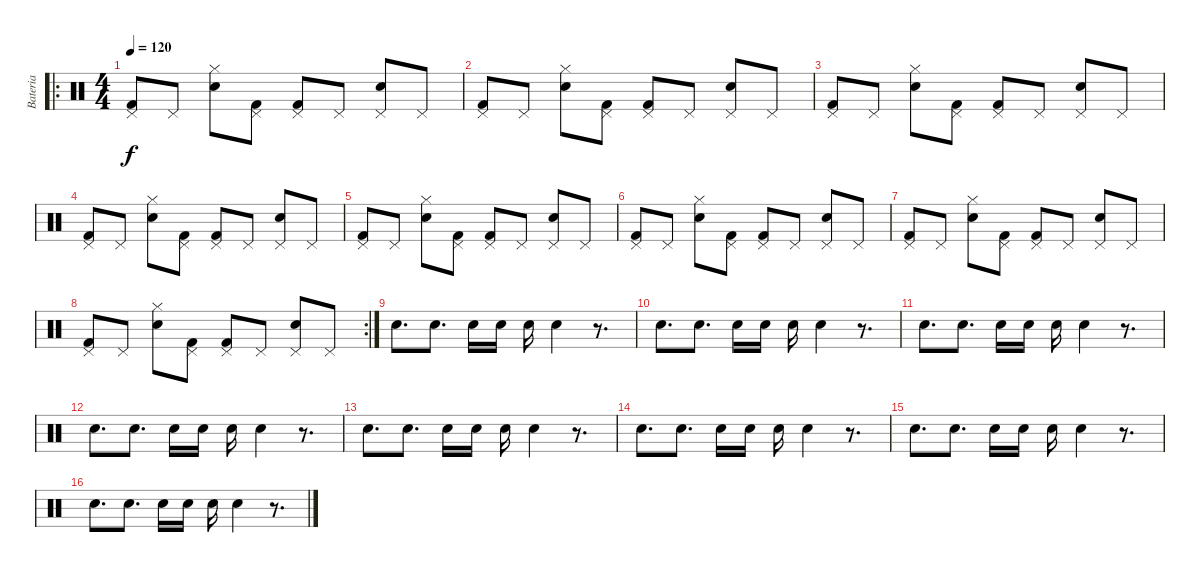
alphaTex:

\track ("Bateria" "Bateria") {instrument percussion}
\staff {score}
\articulation defaults
\ro
\ts (4 4)
\tempo 120
\clef neutral
\ks c
("Pedal Hi-Hat (hit)" "Kick (hit) 2").8{dy f} "Pedal Hi-Hat (hit)".8 ("Hi-Hat (closed)" "Electric Snare (hit)").8 ("Pedal Hi-Hat (hit)" "Kick (hit) 2").8 ("Pedal Hi-Hat (hit)" "Kick (hit) 2").8 "Pedal Hi-Hat (hit)".8 ("Electric Snare (hit)" "Pedal Hi-Hat (hit)").8 "Pedal Hi-Hat (hit)".8 |
("Pedal Hi-Hat (hit)" "Kick (hit) 2").8 "Pedal Hi-Hat (hit)".8 ("Hi-Hat (closed)" "Electric Snare (hit)").8 ("Pedal Hi-Hat (hit)" "Kick (hit) 2").8 ("Pedal Hi-Hat (hit)" "Kick (hit) 2").8 "Pedal Hi-Hat (hit)".8 ("Electric Snare (hit)" "Pedal Hi-Hat (hit)").8 "Pedal Hi-Hat (hit)".8 |
("Pedal Hi-Hat (hit)" "Kick (hit) 2").8 "Pedal Hi-Hat (hit)".8 ("Hi-Hat (closed)" "Electric Snare (hit)").8 ("Pedal Hi-Hat (hit)" "Kick (hit) 2").8 ("Pedal Hi-Hat (hit)" "Kick (hit) 2").8 "Pedal Hi-Hat (hit)".8 ("Electric Snare (hit)" "Pedal Hi-Hat (hit)").8 "Pedal Hi-Hat (hit)".8 |
("Pedal Hi-Hat (hit)" "Kick (hit) 2").8 "Pedal Hi-Hat (hit)".8 ("Hi-Hat (closed)" "Electric Snare (hit)").8 ("Pedal Hi-Hat (hit)" "Kick (hit) 2").8 ("Pedal Hi-Hat (hit)" "Kick (hit) 2").8 "Pedal Hi-Hat (hit)".8 ("Electric Snare (hit)" "Pedal Hi-Hat (hit)").8 "Pedal Hi-Hat (hit)".8 |
("Pedal Hi-Hat (hit)" "Kick (hit) 2").8 "Pedal Hi-Hat (hit)".8 ("Hi-Hat (closed)" "Electric Snare (hit)").8 ("Pedal Hi-Hat (hit)" "Kick (hit) 2").8 ("Pedal Hi-Hat (hit)" "Kick (hit) 2").8 "Pedal Hi-Hat (hit)".8 ("Electric Snare (hit)" "Pedal Hi-Hat (hit)").8 "Pedal Hi-Hat (hit)".8 |
("Pedal Hi-Hat (hit)" "Kick (hit) 2").8 "Pedal Hi-Hat (hit)".8 ("Hi-Hat (closed)" "Electric Snare (hit)").8 ("Pedal Hi-Hat (hit)" "Kick (hit) 2").8 ("Pedal Hi-Hat (hit)" "Kick (hit) 2").8 "Pedal Hi-Hat (hit)".8 ("Electric Snare (hit)" "Pedal Hi-Hat (hit)").8 "Pedal Hi-Hat (hit)".8 |
("Pedal Hi-Hat (hit)" "Kick (hit) 2").8 "Pedal Hi-Hat (hit)".8 ("Hi-Hat (closed)" "Electric Snare (hit)").8 ("Pedal Hi-Hat (hit)" "Kick (hit) 2").8 ("Pedal Hi-Hat (hit)" "Kick (hit) 2").8 "Pedal Hi-Hat (hit)".8 ("Electric Snare (hit)" "Pedal Hi-Hat (hit)").8 "Pedal Hi-Hat (hit)".8 |
\rc 2
("Pedal Hi-Hat (hit)" "Kick (hit) 2").8 "Pedal Hi-Hat (hit)".8 ("Hi-Hat (closed)" "Electric Snare (hit)").8 ("Pedal Hi-Hat (hit)" "Kick (hit) 2").8 ("Pedal Hi-Hat (hit)" "Kick (hit) 2").8 "Pedal Hi-Hat (hit)".8 ("Electric Snare (hit)" "Pedal Hi-Hat (hit)").8 "Pedal Hi-Hat (hit)".8 |
"Electric Snare (hit)".8{d} "Electric Snare (hit)".8{d} "Electric Snare (hit)".16 "Electric Snare (hit)".16 "Electric Snare (hit)".16 "Electric Snare (hit)".4 r.8{d} |
"Electric Snare (hit)".8{d} "Electric Snare (hit)".8{d} "Electric Snare (hit)".16 "Electric Snare (hit)".16 "Electric Snare (hit)".16 "Electric Snare (hit)".4 r.8{d} |
"Electric Snare (hit)".8{d} "Electric Snare (hit)".8{d} "Electric Snare (hit)".16 "Electric Snare (hit)".16 "Electric Snare (hit)".16 "Electric Snare (hit)".4 r.8{d} |
"Electric Snare (hit)".8{d} "Electric Snare (hit)".8{d} "Electric Snare (hit)".16 "Electric Snare (hit)".16 "Electric Snare (hit)".16 "Electric Snare (hit)".4 r.8{d} |
"Electric Snare (hit)".8{d} "Electric Snare (hit)".8{d} "Electric Snare (hit)".16 "Electric Snare (hit)".16 "Electric Snare (hit)".16 "Electric Snare (hit)".4 r.8{d} |
"Electric Snare (hit)".8{d} "Electric Snare (hit)".8{d} "Electric Snare (hit)".16 "Electric Snare (hit)".16 "Electric Snare (hit)".16 "Electric Snare (hit)".4 r.8{d} |
"Electric Snare (hit)".8{d} "Electric Snare (hit)".8{d} "Electric Snare (hit)".16 "Electric Snare (hit)".16 "Electric Snare (hit)".16 "Electric Snare (hit)".4 r.8{d} |
"Electric Snare (hit)".8{d} "Electric Snare (hit)".8{d} "Electric Snare (hit)".16 "Electric Snare (hit)".16 "Electric Snare (hit)".16 "Electric Snare (hit)".4 r.8{d}
